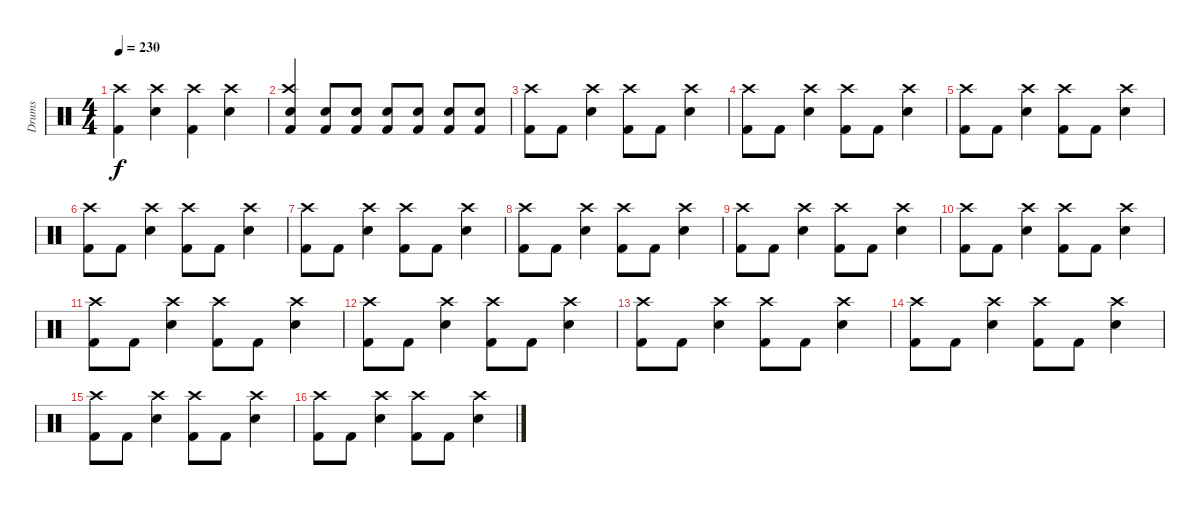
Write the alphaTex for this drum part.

\track ("Drums" "Drums") {instrument percussion}
\staff {score}
\articulation defaults
\ts (4 4)
\tempo 230
\clef neutral
\ks c
("Kick (hit) 2" "Crash high (hit)").4{dy f} ("Snare (hit) 2" "Crash high (hit)").4 ("Kick (hit) 2" "Crash high (hit)").4 ("Snare (hit) 2" "Crash high (hit)").4 |
("Snare (hit) 2" "Kick (hit) 2" "Crash high (hit)").4 ("Snare (hit) 2" "Kick (hit) 2").8 ("Snare (hit) 2" "Kick (hit) 2").8 ("Snare (hit) 2" "Kick (hit) 2").8 ("Snare (hit) 2" "Kick (hit) 2").8 ("Snare (hit) 2" "Kick (hit) 2").8 ("Snare (hit) 2" "Kick (hit) 2").8 |
("Kick (hit) 2" "Crash high (hit)").8 "Kick (hit) 2".8 ("Snare (hit) 2" "Crash high (hit)").4 ("Kick (hit) 2" "Crash high (hit)").8 "Kick (hit) 2".8 ("Snare (hit) 2" "Crash high (hit)").4 |
("Kick (hit) 2" "Crash high (hit)").8 "Kick (hit) 2".8 ("Snare (hit) 2" "Crash high (hit)").4 ("Kick (hit) 2" "Crash high (hit)").8 "Kick (hit) 2".8 ("Snare (hit) 2" "Crash high (hit)").4 |
("Kick (hit) 2" "Crash high (hit)").8 "Kick (hit) 2".8 ("Snare (hit) 2" "Crash high (hit)").4 ("Kick (hit) 2" "Crash high (hit)").8 "Kick (hit) 2".8 ("Snare (hit) 2" "Crash high (hit)").4 |
("Kick (hit) 2" "Crash high (hit)").8 "Kick (hit) 2".8 ("Snare (hit) 2" "Crash high (hit)").4 ("Kick (hit) 2" "Crash high (hit)").8 "Kick (hit) 2".8 ("Snare (hit) 2" "Crash high (hit)").4 |
("Kick (hit) 2" "Crash high (hit)").8 "Kick (hit) 2".8 ("Snare (hit) 2" "Crash high (hit)").4 ("Kick (hit) 2" "Crash high (hit)").8 "Kick (hit) 2".8 ("Snare (hit) 2" "Crash high (hit)").4 |
("Kick (hit) 2" "Crash high (hit)").8 "Kick (hit) 2".8 ("Snare (hit) 2" "Crash high (hit)").4 ("Kick (hit) 2" "Crash high (hit)").8 "Kick (hit) 2".8 ("Snare (hit) 2" "Crash high (hit)").4 |
("Kick (hit) 2" "Crash high (hit)").8 "Kick (hit) 2".8 ("Snare (hit) 2" "Crash high (hit)").4 ("Kick (hit) 2" "Crash high (hit)").8 "Kick (hit) 2".8 ("Snare (hit) 2" "Crash high (hit)").4 |
("Kick (hit) 2" "Crash high (hit)").8 "Kick (hit) 2".8 ("Snare (hit) 2" "Crash high (hit)").4 ("Kick (hit) 2" "Crash high (hit)").8 "Kick (hit) 2".8 ("Snare (hit) 2" "Crash high (hit)").4 |
("Kick (hit) 2" "Crash high (hit)").8 "Kick (hit) 2".8 ("Snare (hit) 2" "Crash high (hit)").4 ("Kick (hit) 2" "Crash high (hit)").8 "Kick (hit) 2".8 ("Snare (hit) 2" "Crash high (hit)").4 |
("Kick (hit) 2" "Crash high (hit)").8 "Kick (hit) 2".8 ("Snare (hit) 2" "Crash high (hit)").4 ("Kick (hit) 2" "Crash high (hit)").8 "Kick (hit) 2".8 ("Snare (hit) 2" "Crash high (hit)").4 |
("Kick (hit) 2" "Crash high (hit)").8 "Kick (hit) 2".8 ("Snare (hit) 2" "Crash high (hit)").4 ("Kick (hit) 2" "Crash high (hit)").8 "Kick (hit) 2".8 ("Snare (hit) 2" "Crash high (hit)").4 |
("Kick (hit) 2" "Crash high (hit)").8 "Kick (hit) 2".8 ("Snare (hit) 2" "Crash high (hit)").4 ("Kick (hit) 2" "Crash high (hit)").8 "Kick (hit) 2".8 ("Snare (hit) 2" "Crash high (hit)").4 |
("Kick (hit) 2" "Crash high (hit)").8 "Kick (hit) 2".8 ("Snare (hit) 2" "Crash high (hit)").4 ("Kick (hit) 2" "Crash high (hit)").8 "Kick (hit) 2".8 ("Snare (hit) 2" "Crash high (hit)").4 |
("Kick (hit) 2" "Crash high (hit)").8 "Kick (hit) 2".8 ("Snare (hit) 2" "Crash high (hit)").4 ("Kick (hit) 2" "Crash high (hit)").8 "Kick (hit) 2".8 ("Snare (hit) 2" "Crash high (hit)").4
